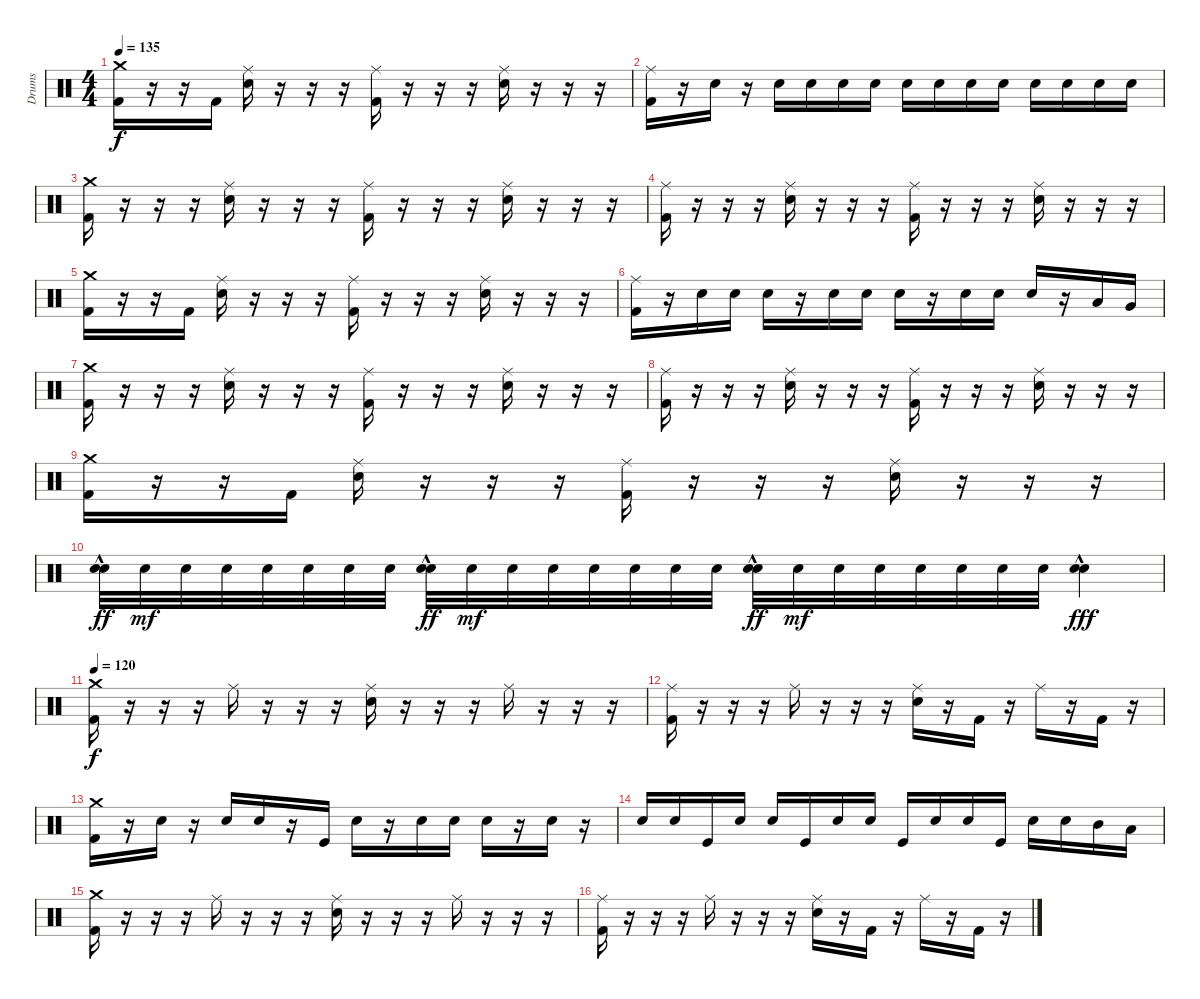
\track ("Drums" "Drums") {instrument percussion}
\staff {score}
\articulation defaults
\ts (4 4)
\tempo 135
\clef neutral
\ks c
("Crash medium (hit)" "Kick (hit) 2").16{dy f} r.16 r.16 "Kick (hit) 2".16 ("Ride (middle)" "Electric Snare (hit)").16 r.16 r.16 r.16 ("Ride (middle)" "Kick (hit) 2").16 r.16 r.16 r.16 ("Ride (middle)" "Electric Snare (hit)").16 r.16 r.16 r.16 |
("Ride (middle)" "Kick (hit) 2").16 r.16 "Electric Snare (hit)".16 r.16 "Electric Snare (hit)".16 "Electric Snare (hit)".16 "Electric Snare (hit)".16 "Electric Snare (hit)".16 "Electric Snare (hit)".16 "Electric Snare (hit)".16 "Electric Snare (hit)".16 "Electric Snare (hit)".16 "Electric Snare (hit)".16 "Electric Snare (hit)".16 "Electric Snare (hit)".16 "Electric Snare (hit)".16 |
("Crash medium (hit)" "Kick (hit) 2").16 r.16 r.16 r.16 ("Ride (middle)" "Electric Snare (hit)").16 r.16 r.16 r.16 ("Ride (middle)" "Kick (hit) 2").16 r.16 r.16 r.16 ("Ride (middle)" "Electric Snare (hit)").16 r.16 r.16 r.16 |
("Ride (middle)" "Kick (hit) 2").16 r.16 r.16 r.16 ("Ride (middle)" "Electric Snare (hit)").16 r.16 r.16 r.16 ("Ride (middle)" "Kick (hit) 2").16 r.16 r.16 r.16 ("Ride (middle)" "Electric Snare (hit)").16 r.16 r.16 r.16 |
("Crash medium (hit)" "Kick (hit) 2").16 r.16 r.16 "Kick (hit) 2".16 ("Ride (middle)" "Electric Snare (hit)").16 r.16 r.16 r.16 ("Ride (middle)" "Kick (hit) 2").16 r.16 r.16 r.16 ("Ride (middle)" "Electric Snare (hit)").16 r.16 r.16 r.16 |
("Ride (middle)" "Kick (hit) 2").16 r.16 "Electric Snare (hit)".16 "Electric Snare (hit)".16 "Electric Snare (hit)".16 r.16 "Electric Snare (hit)".16 "Electric Snare (hit)".16 "Electric Snare (hit)".16 r.16 "Electric Snare (hit)".16 "Electric Snare (hit)".16 "Electric Snare (hit)".16 r.16 "Low Tom (hit)".16 "Very Low Tom (hit)".16 |
("Crash medium (hit)" "Kick (hit) 2").16 r.16 r.16 r.16 ("Ride (middle)" "Electric Snare (hit)").16 r.16 r.16 r.16 ("Ride (middle)" "Kick (hit) 2").16 r.16 r.16 r.16 ("Ride (middle)" "Electric Snare (hit)").16 r.16 r.16 r.16 |
("Ride (middle)" "Kick (hit) 2").16 r.16 r.16 r.16 ("Ride (middle)" "Electric Snare (hit)").16 r.16 r.16 r.16 ("Ride (middle)" "Kick (hit) 2").16 r.16 r.16 r.16 ("Ride (middle)" "Electric Snare (hit)").16 r.16 r.16 r.16 |
("Crash medium (hit)" "Kick (hit) 2").16 r.16 r.16 "Kick (hit) 2".16 ("Ride (middle)" "Electric Snare (hit)").16 r.16 r.16 r.16 ("Ride (middle)" "Kick (hit) 2").16 r.16 r.16 r.16 ("Ride (middle)" "Electric Snare (hit)").16 r.16 r.16 r.16 |
("Electric Snare (hit)" "Electric Snare (hit)"{hac}).32{dy ff} "Electric Snare (hit)".32{dy mf} "Electric Snare (hit)".32 "Electric Snare (hit)".32 "Electric Snare (hit)".32 "Electric Snare (hit)".32 "Electric Snare (hit)".32 "Electric Snare (hit)".32 ("Electric Snare (hit)" "Electric Snare (hit)"{hac}).32{dy ff} "Electric Snare (hit)".32{dy mf} "Electric Snare (hit)".32 "Electric Snare (hit)".32 "Electric Snare (hit)".32 "Electric Snare (hit)".32 "Electric Snare (hit)".32 "Electric Snare (hit)".32 ("Electric Snare (hit)" "Electric Snare (hit)"{hac}).32{dy ff} "Electric Snare (hit)".32{dy mf} "Electric Snare (hit)".32 "Electric Snare (hit)".32 "Electric Snare (hit)".32 "Electric Snare (hit)".32 "Electric Snare (hit)".32 "Electric Snare (hit)".32 ("Electric Snare (hit)" "Electric Snare (hit)"{hac}).4{dy fff} |
\tempo 120
("Crash medium (hit)" "Kick (hit) 2").16{dy f} r.16 r.16 r.16 "Ride (middle)".16 r.16 r.16 r.16 ("Ride (middle)" "Electric Snare (hit)").16 r.16 r.16 r.16 "Ride (middle)".16 r.16 r.16 r.16 |
("Ride (middle)" "Kick (hit) 2").16 r.16 r.16 r.16 "Ride (middle)".16 r.16 r.16 r.16 ("Ride (middle)" "Electric Snare (hit)").16 r.16 "Kick (hit) 2".16 r.16 "Ride (middle)".16 r.16 "Kick (hit) 2".16 r.16 |
("Crash medium (hit)" "Kick (hit) 2").16 r.16 "Electric Snare (hit)".16 r.16 "Electric Snare (hit)".16 "Electric Snare (hit)".16 r.16 "Kick (hit)".16 "Electric Snare (hit)".16 r.16 "Electric Snare (hit)".16 "Electric Snare (hit)".16 "Electric Snare (hit)".16 r.16 "Electric Snare (hit)".16 r.16 |
"Electric Snare (hit)".16 "Electric Snare (hit)".16 "Kick (hit)".16 "Electric Snare (hit)".16 "Electric Snare (hit)".16 "Kick (hit)".16 "Electric Snare (hit)".16 "Electric Snare (hit)".16 "Kick (hit)".16 "Electric Snare (hit)".16 "Electric Snare (hit)".16 "Kick (hit)".16 "Electric Snare (hit)".16 "Electric Snare (hit)".16 "Mid Tom (hit)".16 "Low Tom (hit)".16 |
("Crash medium (hit)" "Kick (hit) 2").16 r.16 r.16 r.16 "Ride (middle)".16 r.16 r.16 r.16 ("Ride (middle)" "Electric Snare (hit)").16 r.16 r.16 r.16 "Ride (middle)".16 r.16 r.16 r.16 |
("Ride (middle)" "Kick (hit) 2").16 r.16 r.16 r.16 "Ride (middle)".16 r.16 r.16 r.16 ("Ride (middle)" "Electric Snare (hit)").16 r.16 "Kick (hit) 2".16 r.16 "Ride (middle)".16 r.16 "Kick (hit) 2".16 r.16
